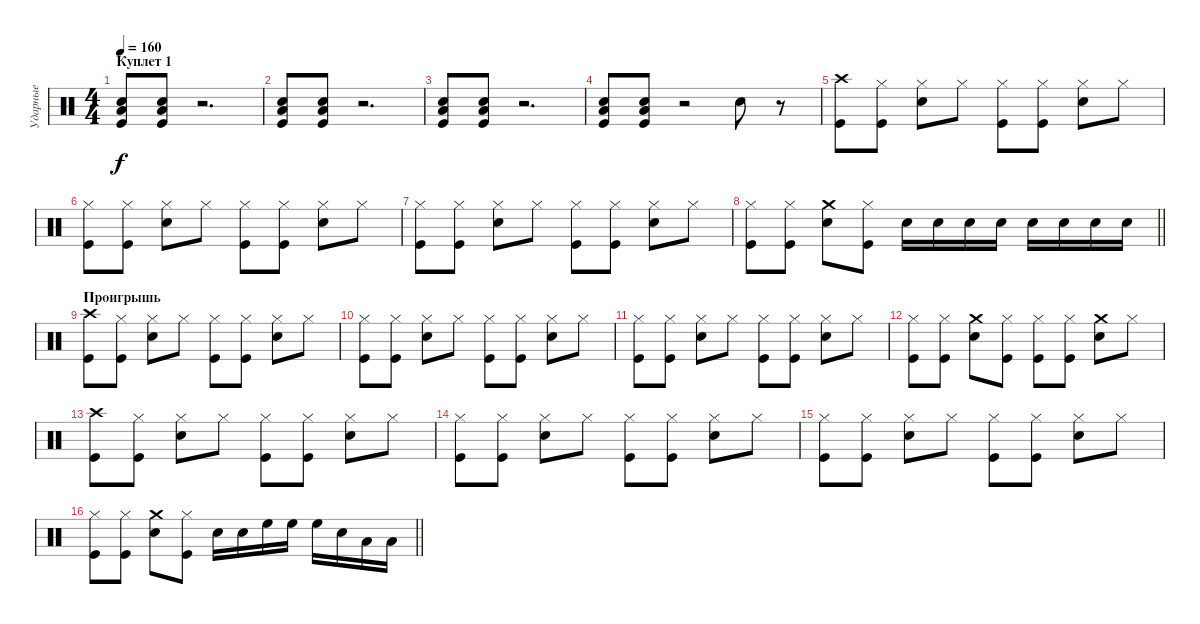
\track ("Ударные" "Ударные") {instrument percussion}
\staff {score}
\articulation defaults
\ts (4 4)
\section ("" "Куплет 1")
\tempo 160
\clef neutral
\ks c
("Kick (hit)" "Snare (hit) 2" "Low Floor Tom (hit)").8{dy f} ("Kick (hit)" "Snare (hit) 2" "Low Floor Tom (hit)").8 r.2{d} |
("Kick (hit)" "Snare (hit) 2" "Low Floor Tom (hit)").8 ("Kick (hit)" "Snare (hit) 2" "Low Floor Tom (hit)").8 r.2{d} |
("Kick (hit)" "Snare (hit) 2" "Low Floor Tom (hit)").8 ("Kick (hit)" "Snare (hit) 2" "Low Floor Tom (hit)").8 r.2{d} |
("Kick (hit)" "Snare (hit) 2" "Low Floor Tom (hit)").8 ("Kick (hit)" "Snare (hit) 2" "Low Floor Tom (hit)").8 r.2 "Snare (hit) 2".8 r.8 |
("Crash high (hit)" "Kick (hit)").8 ("Hi-Hat (closed)" "Kick (hit)").8 ("Hi-Hat (closed)" "Snare (hit) 2").8 "Hi-Hat (closed)".8 ("Hi-Hat (closed)" "Kick (hit)").8 ("Hi-Hat (closed)" "Kick (hit)").8 ("Hi-Hat (closed)" "Snare (hit) 2").8 "Hi-Hat (closed)".8 |
("Hi-Hat (closed)" "Kick (hit)").8 ("Hi-Hat (closed)" "Kick (hit)").8 ("Hi-Hat (closed)" "Snare (hit) 2").8 "Hi-Hat (closed)".8 ("Hi-Hat (closed)" "Kick (hit)").8 ("Hi-Hat (closed)" "Kick (hit)").8 ("Hi-Hat (closed)" "Snare (hit) 2").8 "Hi-Hat (closed)".8 |
("Hi-Hat (closed)" "Kick (hit)").8 ("Hi-Hat (closed)" "Kick (hit)").8 ("Hi-Hat (closed)" "Snare (hit) 2").8 "Hi-Hat (closed)".8 ("Hi-Hat (closed)" "Kick (hit)").8 ("Hi-Hat (closed)" "Kick (hit)").8 ("Hi-Hat (closed)" "Snare (hit) 2").8 "Hi-Hat (closed)".8 |
\barLineRight lightlight
("Hi-Hat (closed)" "Kick (hit)").8 ("Hi-Hat (closed)" "Kick (hit)").8 ("Crash medium (hit)" "Snare (hit) 2").8 ("Hi-Hat (closed)" "Kick (hit)").8 "Snare (hit) 2".16 "Snare (hit) 2".16 "Snare (hit) 2".16 "Snare (hit) 2".16 "Snare (hit) 2".16 "Snare (hit) 2".16 "Snare (hit) 2".16 "Snare (hit) 2".16 |
\section ("" "Проигрышь")
("Crash high (hit)" "Kick (hit)").8 ("Hi-Hat (closed)" "Kick (hit)").8 ("Hi-Hat (closed)" "Snare (hit) 2").8 "Hi-Hat (closed)".8 ("Hi-Hat (closed)" "Kick (hit)").8 ("Hi-Hat (closed)" "Kick (hit)").8 ("Hi-Hat (closed)" "Snare (hit) 2").8 "Hi-Hat (closed)".8 |
("Hi-Hat (closed)" "Kick (hit)").8 ("Hi-Hat (closed)" "Kick (hit)").8 ("Hi-Hat (closed)" "Snare (hit) 2").8 "Hi-Hat (closed)".8 ("Hi-Hat (closed)" "Kick (hit)").8 ("Hi-Hat (closed)" "Kick (hit)").8 ("Hi-Hat (closed)" "Snare (hit) 2").8 "Hi-Hat (closed)".8 |
("Hi-Hat (closed)" "Kick (hit)").8 ("Hi-Hat (closed)" "Kick (hit)").8 ("Hi-Hat (closed)" "Snare (hit) 2").8 "Hi-Hat (closed)".8 ("Hi-Hat (closed)" "Kick (hit)").8 ("Hi-Hat (closed)" "Kick (hit)").8 ("Hi-Hat (closed)" "Snare (hit) 2").8 "Hi-Hat (closed)".8 |
("Hi-Hat (closed)" "Kick (hit)").8 ("Hi-Hat (closed)" "Kick (hit)").8 ("Crash medium (hit)" "Snare (hit) 2").8 ("Hi-Hat (closed)" "Kick (hit)").8 ("Hi-Hat (closed)" "Kick (hit)").8 ("Hi-Hat (closed)" "Kick (hit)").8 ("Crash medium (hit)" "Snare (hit) 2").8 "Hi-Hat (closed)".8 |
("Crash high (hit)" "Kick (hit)").8 ("Hi-Hat (closed)" "Kick (hit)").8 ("Hi-Hat (closed)" "Snare (hit) 2").8 "Hi-Hat (closed)".8 ("Hi-Hat (closed)" "Kick (hit)").8 ("Hi-Hat (closed)" "Kick (hit)").8 ("Hi-Hat (closed)" "Snare (hit) 2").8 "Hi-Hat (closed)".8 |
("Hi-Hat (closed)" "Kick (hit)").8 ("Hi-Hat (closed)" "Kick (hit)").8 ("Hi-Hat (closed)" "Snare (hit) 2").8 "Hi-Hat (closed)".8 ("Hi-Hat (closed)" "Kick (hit)").8 ("Hi-Hat (closed)" "Kick (hit)").8 ("Hi-Hat (closed)" "Snare (hit) 2").8 "Hi-Hat (closed)".8 |
("Hi-Hat (closed)" "Kick (hit)").8 ("Hi-Hat (closed)" "Kick (hit)").8 ("Hi-Hat (closed)" "Snare (hit) 2").8 "Hi-Hat (closed)".8 ("Hi-Hat (closed)" "Kick (hit)").8 ("Hi-Hat (closed)" "Kick (hit)").8 ("Hi-Hat (closed)" "Snare (hit) 2").8 "Hi-Hat (closed)".8 |
\barLineRight lightlight
("Hi-Hat (closed)" "Kick (hit)").8 ("Hi-Hat (closed)" "Kick (hit)").8 ("Crash medium (hit)" "Snare (hit) 2").8 ("Hi-Hat (closed)" "Kick (hit)").8 "Snare (hit) 2".16 "Snare (hit) 2".16 "High Floor Tom (hit)".16 "High Floor Tom (hit)".16 "High Floor Tom (hit)".16 "Snare (hit) 2".16 "Low Tom (hit)".16 "Low Tom (hit)".16
